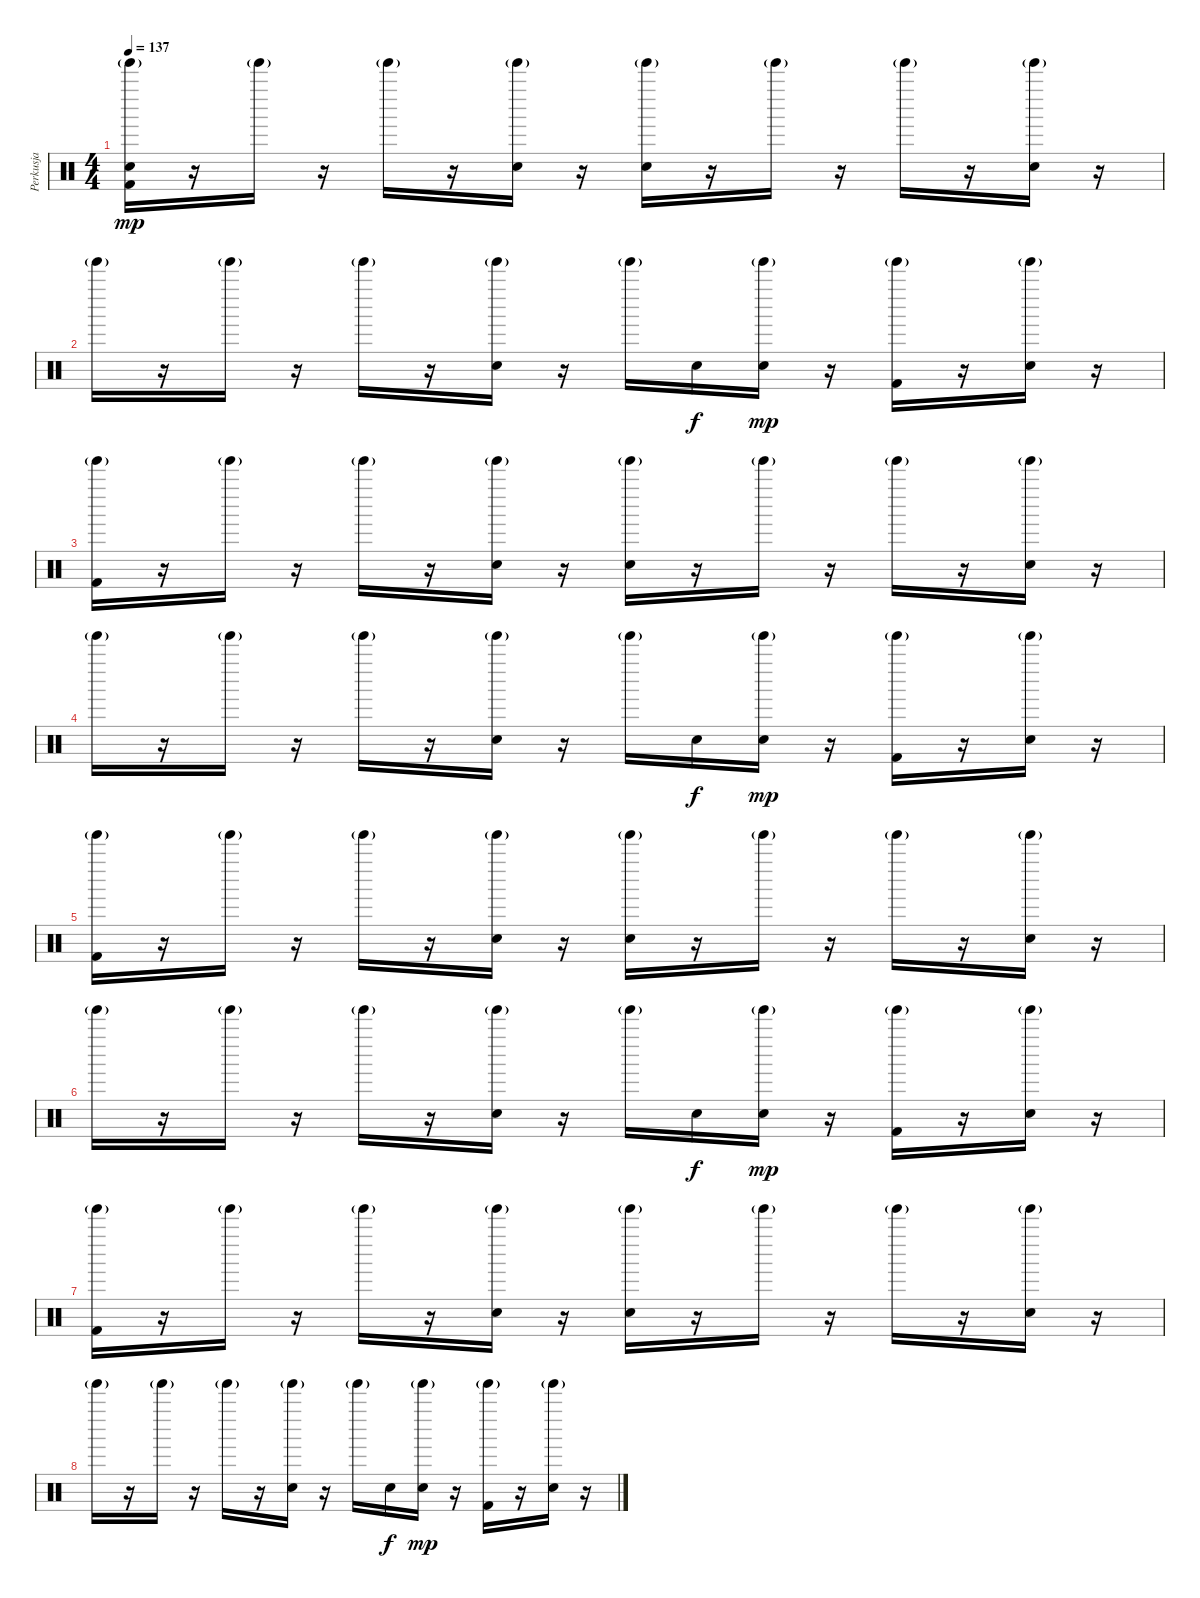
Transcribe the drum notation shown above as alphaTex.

\track ("Perkusja" "Perkusja") {instrument percussion}
\staff {score}
\articulation defaults
\ts (4 4)
\tempo 137
\clef neutral
\ks c
("Electric Snare (hit)" "Kick (hit) 2" "Tinkle Bell (hit)"{g}).16{dy mp} r.16 "Tinkle Bell (hit)"{g}.16 r.16 "Tinkle Bell (hit)"{g}.16 r.16 ("Electric Snare (hit)" "Tinkle Bell (hit)"{g}).16 r.16 ("Electric Snare (hit)" "Tinkle Bell (hit)"{g}).16 r.16 "Tinkle Bell (hit)"{g}.16 r.16 "Tinkle Bell (hit)"{g}.16 r.16 ("Electric Snare (hit)" "Tinkle Bell (hit)"{g}).16 r.16 |
"Tinkle Bell (hit)"{g}.16 r.16 "Tinkle Bell (hit)"{g}.16 r.16 "Tinkle Bell (hit)"{g}.16 r.16 ("Electric Snare (hit)" "Tinkle Bell (hit)"{g}).16 r.16 "Tinkle Bell (hit)"{g}.16 "Electric Snare (hit)".16{dy f} ("Electric Snare (hit)" "Tinkle Bell (hit)"{g}).16{dy mp} r.16 ("Kick (hit) 2" "Tinkle Bell (hit)"{g}).16 r.16 ("Electric Snare (hit)" "Tinkle Bell (hit)"{g}).16 r.16 |
("Kick (hit) 2" "Tinkle Bell (hit)"{g}).16 r.16 "Tinkle Bell (hit)"{g}.16 r.16 "Tinkle Bell (hit)"{g}.16 r.16 ("Electric Snare (hit)" "Tinkle Bell (hit)"{g}).16 r.16 ("Electric Snare (hit)" "Tinkle Bell (hit)"{g}).16 r.16 "Tinkle Bell (hit)"{g}.16 r.16 "Tinkle Bell (hit)"{g}.16 r.16 ("Electric Snare (hit)" "Tinkle Bell (hit)"{g}).16 r.16 |
"Tinkle Bell (hit)"{g}.16 r.16 "Tinkle Bell (hit)"{g}.16 r.16 "Tinkle Bell (hit)"{g}.16 r.16 ("Electric Snare (hit)" "Tinkle Bell (hit)"{g}).16 r.16 "Tinkle Bell (hit)"{g}.16 "Electric Snare (hit)".16{dy f} ("Electric Snare (hit)" "Tinkle Bell (hit)"{g}).16{dy mp} r.16 ("Kick (hit) 2" "Tinkle Bell (hit)"{g}).16 r.16 ("Electric Snare (hit)" "Tinkle Bell (hit)"{g}).16 r.16 |
("Kick (hit) 2" "Tinkle Bell (hit)"{g}).16 r.16 "Tinkle Bell (hit)"{g}.16 r.16 "Tinkle Bell (hit)"{g}.16 r.16 ("Electric Snare (hit)" "Tinkle Bell (hit)"{g}).16 r.16 ("Electric Snare (hit)" "Tinkle Bell (hit)"{g}).16 r.16 "Tinkle Bell (hit)"{g}.16 r.16 "Tinkle Bell (hit)"{g}.16 r.16 ("Electric Snare (hit)" "Tinkle Bell (hit)"{g}).16 r.16 |
"Tinkle Bell (hit)"{g}.16 r.16 "Tinkle Bell (hit)"{g}.16 r.16 "Tinkle Bell (hit)"{g}.16 r.16 ("Electric Snare (hit)" "Tinkle Bell (hit)"{g}).16 r.16 "Tinkle Bell (hit)"{g}.16 "Electric Snare (hit)".16{dy f} ("Electric Snare (hit)" "Tinkle Bell (hit)"{g}).16{dy mp} r.16 ("Kick (hit) 2" "Tinkle Bell (hit)"{g}).16 r.16 ("Electric Snare (hit)" "Tinkle Bell (hit)"{g}).16 r.16 |
("Kick (hit) 2" "Tinkle Bell (hit)"{g}).16 r.16 "Tinkle Bell (hit)"{g}.16 r.16 "Tinkle Bell (hit)"{g}.16 r.16 ("Electric Snare (hit)" "Tinkle Bell (hit)"{g}).16 r.16 ("Electric Snare (hit)" "Tinkle Bell (hit)"{g}).16 r.16 "Tinkle Bell (hit)"{g}.16 r.16 "Tinkle Bell (hit)"{g}.16 r.16 ("Electric Snare (hit)" "Tinkle Bell (hit)"{g}).16 r.16 |
"Tinkle Bell (hit)"{g}.16 r.16 "Tinkle Bell (hit)"{g}.16 r.16 "Tinkle Bell (hit)"{g}.16 r.16 ("Electric Snare (hit)" "Tinkle Bell (hit)"{g}).16 r.16 "Tinkle Bell (hit)"{g}.16 "Electric Snare (hit)".16{dy f} ("Electric Snare (hit)" "Tinkle Bell (hit)"{g}).16{dy mp} r.16 ("Kick (hit) 2" "Tinkle Bell (hit)"{g}).16 r.16 ("Electric Snare (hit)" "Tinkle Bell (hit)"{g}).16 r.16
